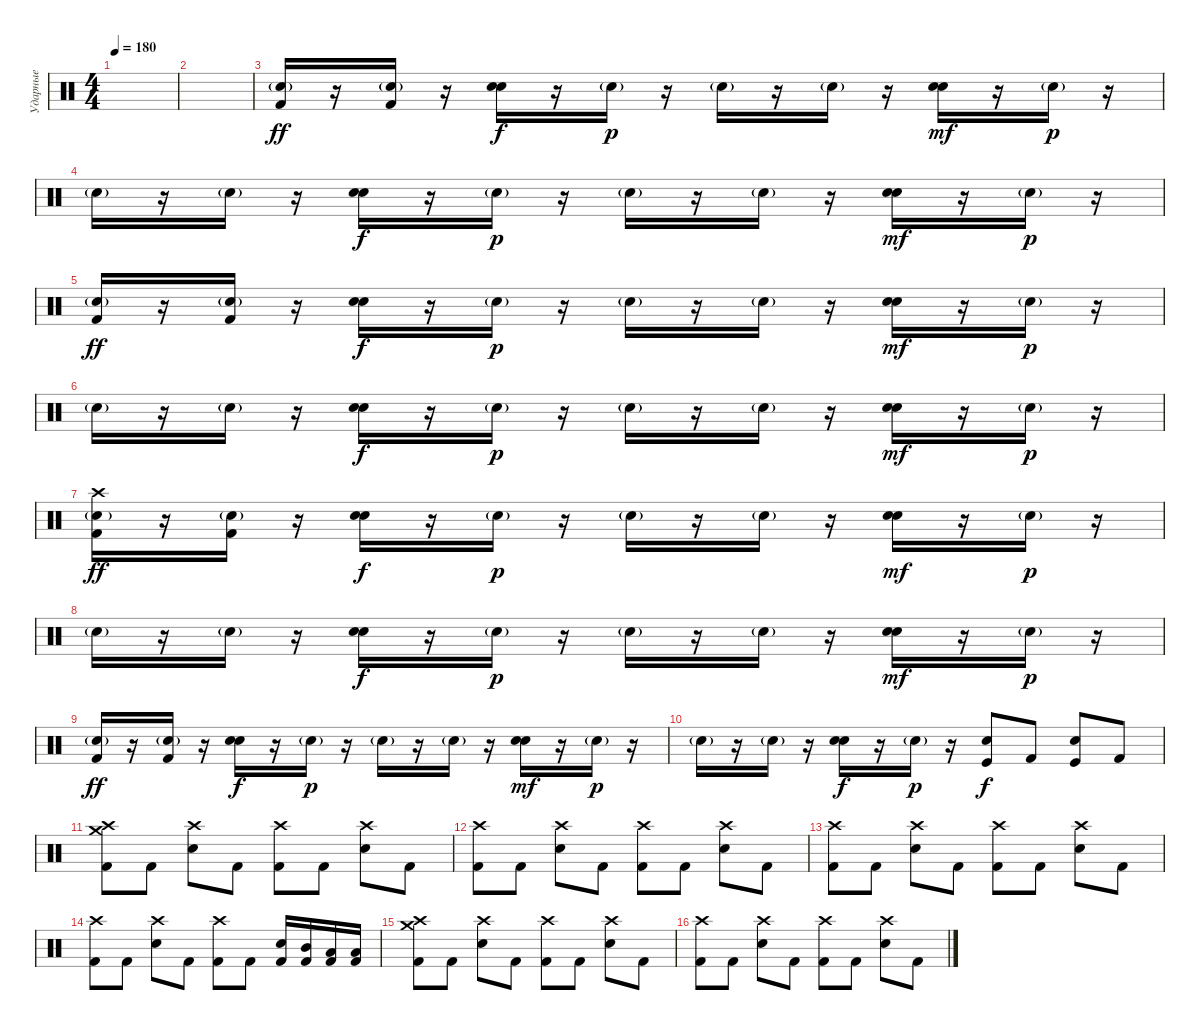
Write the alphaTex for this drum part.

\track ("Ударные" "Ударные") {instrument percussion}
\staff {score}
\articulation defaults
\ts (4 4)
\tempo 180
\clef neutral
\ks c
|
|
("Electric Snare (hit)"{g} "Kick (hit) 2").16{dy ff} r.16 ("Electric Snare (hit)"{g} "Kick (hit) 2").16 r.16 ("Electric Snare (hit)" "Electric Snare (hit)").16{dy f} r.16 "Electric Snare (hit)"{g}.16{dy p} r.16 "Electric Snare (hit)"{g}.16 r.16 "Electric Snare (hit)"{g}.16 r.16 ("Electric Snare (hit)" "Electric Snare (hit)").16{dy mf} r.16 "Electric Snare (hit)"{g}.16{dy p} r.16 |
"Electric Snare (hit)"{g}.16 r.16 "Electric Snare (hit)"{g}.16 r.16 ("Electric Snare (hit)" "Electric Snare (hit)").16{dy f} r.16 "Electric Snare (hit)"{g}.16{dy p} r.16 "Electric Snare (hit)"{g}.16 r.16 "Electric Snare (hit)"{g}.16 r.16 ("Electric Snare (hit)" "Electric Snare (hit)").16{dy mf} r.16 "Electric Snare (hit)"{g}.16{dy p} r.16 |
("Electric Snare (hit)"{g} "Kick (hit) 2").16{dy ff} r.16 ("Electric Snare (hit)"{g} "Kick (hit) 2").16 r.16 ("Electric Snare (hit)" "Electric Snare (hit)").16{dy f} r.16 "Electric Snare (hit)"{g}.16{dy p} r.16 "Electric Snare (hit)"{g}.16 r.16 "Electric Snare (hit)"{g}.16 r.16 ("Electric Snare (hit)" "Electric Snare (hit)").16{dy mf} r.16 "Electric Snare (hit)"{g}.16{dy p} r.16 |
"Electric Snare (hit)"{g}.16 r.16 "Electric Snare (hit)"{g}.16 r.16 ("Electric Snare (hit)" "Electric Snare (hit)").16{dy f} r.16 "Electric Snare (hit)"{g}.16{dy p} r.16 "Electric Snare (hit)"{g}.16 r.16 "Electric Snare (hit)"{g}.16 r.16 ("Electric Snare (hit)" "Electric Snare (hit)").16{dy mf} r.16 "Electric Snare (hit)"{g}.16{dy p} r.16 |
("Crash high (hit)" "Electric Snare (hit)"{g} "Kick (hit) 2").16{dy ff} r.16 ("Electric Snare (hit)"{g} "Kick (hit) 2").16 r.16 ("Electric Snare (hit)" "Electric Snare (hit)").16{dy f} r.16 "Electric Snare (hit)"{g}.16{dy p} r.16 "Electric Snare (hit)"{g}.16 r.16 "Electric Snare (hit)"{g}.16 r.16 ("Electric Snare (hit)" "Electric Snare (hit)").16{dy mf} r.16 "Electric Snare (hit)"{g}.16{dy p} r.16 |
"Electric Snare (hit)"{g}.16 r.16 "Electric Snare (hit)"{g}.16 r.16 ("Electric Snare (hit)" "Electric Snare (hit)").16{dy f} r.16 "Electric Snare (hit)"{g}.16{dy p} r.16 "Electric Snare (hit)"{g}.16 r.16 "Electric Snare (hit)"{g}.16 r.16 ("Electric Snare (hit)" "Electric Snare (hit)").16{dy mf} r.16 "Electric Snare (hit)"{g}.16{dy p} r.16 |
("Electric Snare (hit)"{g} "Kick (hit) 2").16{dy ff} r.16 ("Electric Snare (hit)"{g} "Kick (hit) 2").16 r.16 ("Electric Snare (hit)" "Electric Snare (hit)").16{dy f} r.16 "Electric Snare (hit)"{g}.16{dy p} r.16 "Electric Snare (hit)"{g}.16 r.16 "Electric Snare (hit)"{g}.16 r.16 ("Electric Snare (hit)" "Electric Snare (hit)").16{dy mf} r.16 "Electric Snare (hit)"{g}.16{dy p} r.16 |
"Electric Snare (hit)"{g}.16 r.16 "Electric Snare (hit)"{g}.16 r.16 ("Electric Snare (hit)" "Electric Snare (hit)").16{dy f} r.16 "Electric Snare (hit)"{g}.16{dy p} r.16 ("Kick (hit)" "Electric Snare (hit)").8{dy f} "Kick (hit) 2".8 ("Kick (hit)" "Electric Snare (hit)").8 "Kick (hit) 2".8 |
("Crash medium (hit)" "Crash high (hit)" "Kick (hit) 2").8 "Kick (hit) 2".8 ("Crash high (hit)" "Electric Snare (hit)").8 "Kick (hit) 2".8 ("Crash high (hit)" "Kick (hit) 2").8 "Kick (hit) 2".8 ("Crash high (hit)" "Electric Snare (hit)").8 "Kick (hit) 2".8 |
("Crash high (hit)" "Kick (hit) 2").8 "Kick (hit) 2".8 ("Crash high (hit)" "Electric Snare (hit)").8 "Kick (hit) 2".8 ("Crash high (hit)" "Kick (hit) 2").8 "Kick (hit) 2".8 ("Crash high (hit)" "Electric Snare (hit)").8 "Kick (hit) 2".8 |
("Crash high (hit)" "Kick (hit) 2").8 "Kick (hit) 2".8 ("Crash high (hit)" "Electric Snare (hit)").8 "Kick (hit) 2".8 ("Crash high (hit)" "Kick (hit) 2").8 "Kick (hit) 2".8 ("Crash high (hit)" "Electric Snare (hit)").8 "Kick (hit) 2".8 |
("Crash high (hit)" "Kick (hit) 2").8 "Kick (hit) 2".8 ("Crash high (hit)" "Electric Snare (hit)").8 "Kick (hit) 2".8 ("Crash high (hit)" "Kick (hit) 2").8 "Kick (hit) 2".8 ("Electric Snare (hit)" "Kick (hit) 2").16 ("Mid Tom (hit)" "Kick (hit) 2").16 ("Low Tom (hit)" "Kick (hit) 2").16 ("Low Tom (hit)" "Kick (hit) 2").16 |
("Crash medium (hit)" "Crash high (hit)" "Kick (hit) 2").8 "Kick (hit) 2".8 ("Crash high (hit)" "Electric Snare (hit)").8 "Kick (hit) 2".8 ("Crash high (hit)" "Kick (hit) 2").8 "Kick (hit) 2".8 ("Crash high (hit)" "Electric Snare (hit)").8 "Kick (hit) 2".8 |
("Crash high (hit)" "Kick (hit) 2").8 "Kick (hit) 2".8 ("Crash high (hit)" "Electric Snare (hit)").8 "Kick (hit) 2".8 ("Crash high (hit)" "Kick (hit) 2").8 "Kick (hit) 2".8 ("Crash high (hit)" "Electric Snare (hit)").8 "Kick (hit) 2".8
